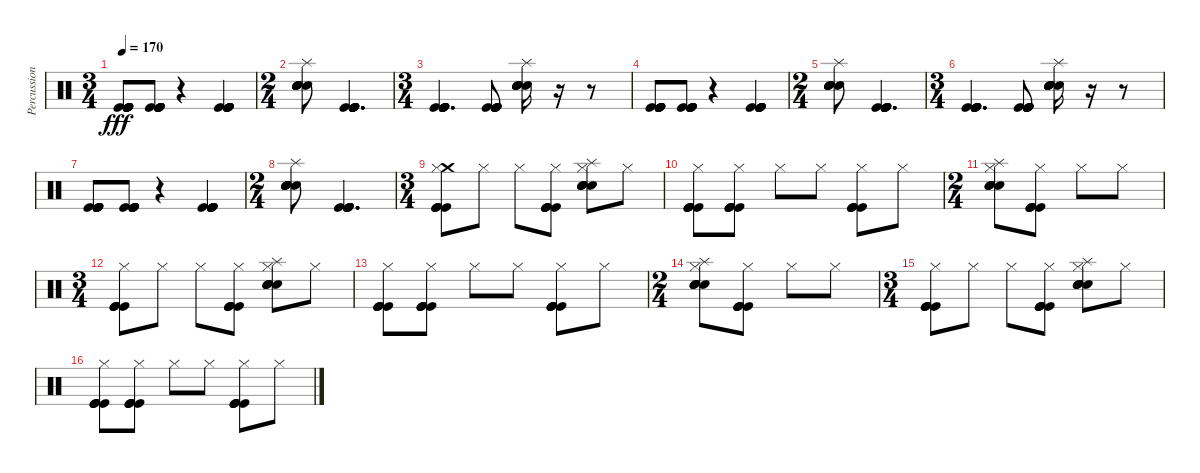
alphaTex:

\track ("Percussion" "Percussion") {instrument percussion}
\staff {score}
\articulation defaults
\ts (3 4)
\tempo 170
\clef neutral
\ks c
("Kick (hit)" "Kick (hit)" "Kick (hit)" "Kick (hit)" "Kick (hit)" "Kick (hit)").8{dy fff} ("Kick (hit)" "Kick (hit)" "Kick (hit)" "Kick (hit)" "Kick (hit)" "Kick (hit)").8 r.4 ("Kick (hit)" "Kick (hit)" "Kick (hit)" "Kick (hit)" "Kick (hit)" "Kick (hit)").4 |
\ts (2 4)
("Splash (hit)" "Hand Clap (hit)" "Hand Clap (hit)" "Hand Clap (hit)" "Hand Clap (hit)" "Hand Clap (hit)").8 ("Kick (hit)" "Kick (hit)" "Kick (hit)" "Kick (hit)" "Kick (hit)" "Kick (hit)").4{d} |
\ts (3 4)
("Kick (hit)" "Kick (hit)" "Kick (hit)" "Kick (hit)" "Kick (hit)" "Kick (hit)").4{d} ("Kick (hit)" "Kick (hit)" "Kick (hit)" "Kick (hit)" "Kick (hit)" "Kick (hit)").8 ("Splash (hit)" "Hand Clap (hit)" "Hand Clap (hit)" "Hand Clap (hit)" "Hand Clap (hit)" "Hand Clap (hit)").16 r.16 r.8 |
("Kick (hit)" "Kick (hit)" "Kick (hit)" "Kick (hit)" "Kick (hit)" "Kick (hit)").8 ("Kick (hit)" "Kick (hit)" "Kick (hit)" "Kick (hit)" "Kick (hit)" "Kick (hit)").8 r.4 ("Kick (hit)" "Kick (hit)" "Kick (hit)" "Kick (hit)" "Kick (hit)" "Kick (hit)").4 |
\ts (2 4)
("Splash (hit)" "Hand Clap (hit)" "Hand Clap (hit)" "Hand Clap (hit)" "Hand Clap (hit)" "Hand Clap (hit)").8 ("Kick (hit)" "Kick (hit)" "Kick (hit)" "Kick (hit)" "Kick (hit)" "Kick (hit)").4{d} |
\ts (3 4)
("Kick (hit)" "Kick (hit)" "Kick (hit)" "Kick (hit)" "Kick (hit)" "Kick (hit)").4{d} ("Kick (hit)" "Kick (hit)" "Kick (hit)" "Kick (hit)" "Kick (hit)" "Kick (hit)").8 ("Splash (hit)" "Hand Clap (hit)" "Hand Clap (hit)" "Hand Clap (hit)" "Hand Clap (hit)" "Hand Clap (hit)").16 r.16 r.8 |
("Kick (hit)" "Kick (hit)" "Kick (hit)" "Kick (hit)" "Kick (hit)" "Kick (hit)").8 ("Kick (hit)" "Kick (hit)" "Kick (hit)" "Kick (hit)" "Kick (hit)" "Kick (hit)").8 r.4 ("Kick (hit)" "Kick (hit)" "Kick (hit)" "Kick (hit)" "Kick (hit)" "Kick (hit)").4 |
\ts (2 4)
("Splash (hit)" "Hand Clap (hit)" "Hand Clap (hit)" "Hand Clap (hit)" "Hand Clap (hit)" "Hand Clap (hit)").8 ("Kick (hit)" "Kick (hit)" "Kick (hit)" "Kick (hit)" "Kick (hit)" "Kick (hit)").4{d} |
\ts (3 4)
("Crash medium (hit)" "Hi-Hat (closed)" "Kick (hit)" "Kick (hit)" "Kick (hit)" "Kick (hit)").8 "Hi-Hat (closed)".8 "Hi-Hat (closed)".8 ("Hi-Hat (closed)" "Kick (hit)" "Kick (hit)" "Kick (hit)" "Kick (hit)").8 ("Splash (hit)" "Hi-Hat (closed)" "Hand Clap (hit)" "Hand Clap (hit)" "Hand Clap (hit)" "Hand Clap (hit)").8 "Hi-Hat (closed)".8 |
("Hi-Hat (closed)" "Kick (hit)" "Kick (hit)" "Kick (hit)" "Kick (hit)").8 ("Hi-Hat (closed)" "Kick (hit)" "Kick (hit)" "Kick (hit)" "Kick (hit)").8 "Hi-Hat (closed)".8 "Hi-Hat (closed)".8 ("Hi-Hat (closed)" "Kick (hit)" "Kick (hit)" "Kick (hit)" "Kick (hit)").8 "Hi-Hat (closed)".8 |
\ts (2 4)
("Splash (hit)" "Hi-Hat (closed)" "Hand Clap (hit)" "Hand Clap (hit)" "Hand Clap (hit)" "Hand Clap (hit)").8 ("Hi-Hat (closed)" "Kick (hit)" "Kick (hit)" "Kick (hit)" "Kick (hit)").8 "Hi-Hat (closed)".8 "Hi-Hat (closed)".8 |
\ts (3 4)
("Hi-Hat (closed)" "Kick (hit)" "Kick (hit)" "Kick (hit)" "Kick (hit)").8 "Hi-Hat (closed)".8 "Hi-Hat (closed)".8 ("Hi-Hat (closed)" "Kick (hit)" "Kick (hit)" "Kick (hit)" "Kick (hit)").8 ("Splash (hit)" "Hi-Hat (closed)" "Hand Clap (hit)" "Hand Clap (hit)" "Hand Clap (hit)" "Hand Clap (hit)").8 "Hi-Hat (closed)".8 |
("Hi-Hat (closed)" "Kick (hit)" "Kick (hit)" "Kick (hit)" "Kick (hit)").8 ("Hi-Hat (closed)" "Kick (hit)" "Kick (hit)" "Kick (hit)" "Kick (hit)").8 "Hi-Hat (closed)".8 "Hi-Hat (closed)".8 ("Hi-Hat (closed)" "Kick (hit)" "Kick (hit)" "Kick (hit)" "Kick (hit)").8 "Hi-Hat (closed)".8 |
\ts (2 4)
("Splash (hit)" "Hi-Hat (closed)" "Hand Clap (hit)" "Hand Clap (hit)" "Hand Clap (hit)" "Hand Clap (hit)").8 ("Hi-Hat (closed)" "Kick (hit)" "Kick (hit)" "Kick (hit)" "Kick (hit)").8 "Hi-Hat (closed)".8 "Hi-Hat (closed)".8 |
\ts (3 4)
("Hi-Hat (closed)" "Kick (hit)" "Kick (hit)" "Kick (hit)" "Kick (hit)").8 "Hi-Hat (closed)".8 "Hi-Hat (closed)".8 ("Hi-Hat (closed)" "Kick (hit)" "Kick (hit)" "Kick (hit)" "Kick (hit)").8 ("Splash (hit)" "Hi-Hat (closed)" "Hand Clap (hit)" "Hand Clap (hit)" "Hand Clap (hit)" "Hand Clap (hit)").8 "Hi-Hat (closed)".8 |
("Hi-Hat (closed)" "Kick (hit)" "Kick (hit)" "Kick (hit)" "Kick (hit)").8 ("Hi-Hat (closed)" "Kick (hit)" "Kick (hit)" "Kick (hit)" "Kick (hit)").8 "Hi-Hat (closed)".8 "Hi-Hat (closed)".8 ("Hi-Hat (closed)" "Kick (hit)" "Kick (hit)" "Kick (hit)" "Kick (hit)").8 "Hi-Hat (closed)".8
